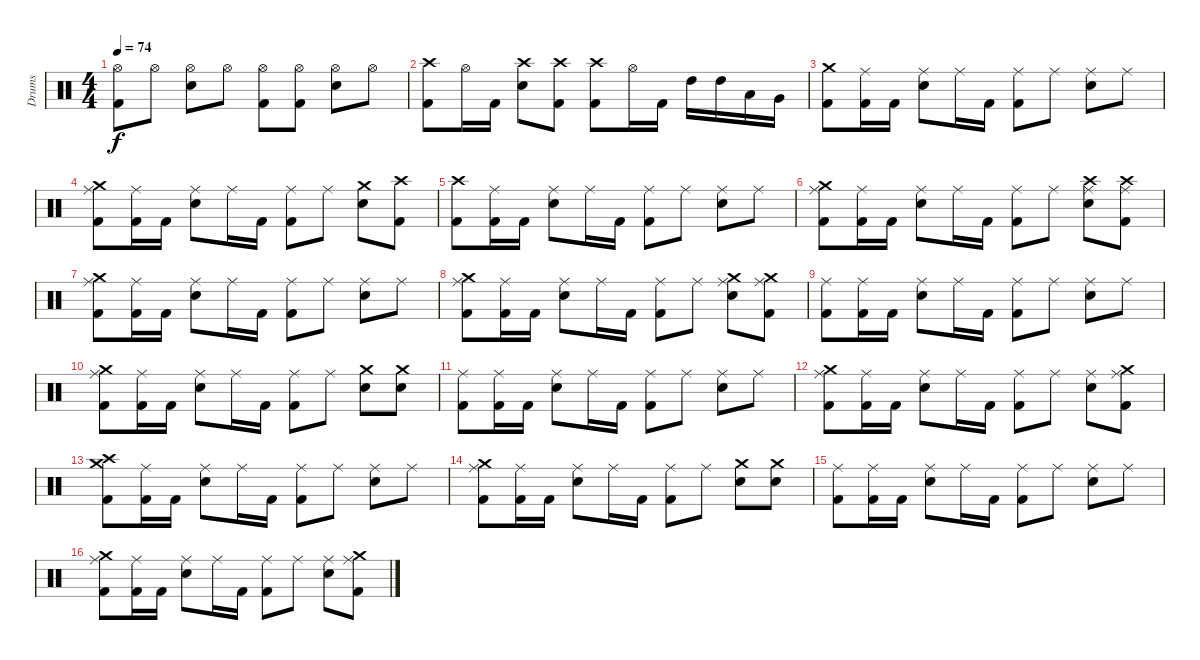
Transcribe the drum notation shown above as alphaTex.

\track ("Drums" "Drums") {instrument percussion}
\staff {score}
\articulation defaults
\ts (4 4)
\tempo 74
\clef neutral
\ks c
("Hi-Hat (open)" "Kick (hit) 2").8{dy f} "Hi-Hat (open)".8 ("Hi-Hat (open)" "Snare (hit) 2").8 "Hi-Hat (open)".8 ("Hi-Hat (open)" "Kick (hit) 2").8 ("Hi-Hat (open)" "Kick (hit) 2").8 ("Hi-Hat (open)" "Snare (hit) 2").8 "Hi-Hat (open)".8 |
("Crash high (hit)" "Kick (hit) 2").8 "Hi-Hat (open)".16 "Kick (hit) 2".16 ("Crash high (hit)" "Snare (hit) 2").8 ("Crash high (hit)" "Kick (hit) 2").8 ("Crash high (hit)" "Kick (hit) 2").8 "Hi-Hat (open)".16 "Kick (hit) 2".16 "High Tom (hit)".16 "High Tom (hit)".16 "Low Tom (hit)".16 "Very Low Tom (hit)".16 |
("Crash medium (hit)" "Kick (hit) 2").8 ("Ride (middle)" "Kick (hit) 2").16 "Kick (hit) 2".16 ("Ride (middle)" "Snare (hit) 2").8 "Ride (middle)".16 "Kick (hit) 2".16 ("Ride (middle)" "Kick (hit) 2").8 "Ride (middle)".8 ("Ride (middle)" "Snare (hit) 2").8 "Ride (middle)".8 |
("Ride (middle)" "Crash medium (hit)" "Kick (hit) 2").8 ("Ride (middle)" "Kick (hit) 2").16 "Kick (hit) 2".16 ("Ride (middle)" "Snare (hit) 2").8 "Ride (middle)".16 "Kick (hit) 2".16 ("Ride (middle)" "Kick (hit) 2").8 "Ride (middle)".8 ("Crash medium (hit)" "Snare (hit) 2").8 ("Crash high (hit)" "Kick (hit) 2").8 |
("Crash high (hit)" "Kick (hit) 2").8 ("Ride (middle)" "Kick (hit) 2").16 "Kick (hit) 2".16 ("Ride (middle)" "Snare (hit) 2").8 "Ride (middle)".16 "Kick (hit) 2".16 ("Ride (middle)" "Kick (hit) 2").8 "Ride (middle)".8 ("Ride (middle)" "Snare (hit) 2").8 "Ride (middle)".8 |
("Ride (middle)" "Crash medium (hit)" "Kick (hit) 2").8 ("Ride (middle)" "Kick (hit) 2").16 "Kick (hit) 2".16 ("Ride (middle)" "Snare (hit) 2").8 "Ride (middle)".16 "Kick (hit) 2".16 ("Ride (middle)" "Kick (hit) 2").8 "Ride (middle)".8 ("Ride (middle)" "Crash high (hit)" "Snare (hit) 2").8 ("Ride (middle)" "Crash high (hit)" "Kick (hit) 2").8 |
("Ride (middle)" "Crash medium (hit)" "Kick (hit) 2").8 ("Ride (middle)" "Kick (hit) 2").16 "Kick (hit) 2".16 ("Ride (middle)" "Snare (hit) 2").8 "Ride (middle)".16 "Kick (hit) 2".16 ("Ride (middle)" "Kick (hit) 2").8 "Ride (middle)".8 ("Ride (middle)" "Snare (hit) 2").8 "Ride (middle)".8 |
("Ride (middle)" "Crash medium (hit)" "Kick (hit) 2").8 ("Ride (middle)" "Kick (hit) 2").16 "Kick (hit) 2".16 ("Ride (middle)" "Snare (hit) 2").8 "Ride (middle)".16 "Kick (hit) 2".16 ("Ride (middle)" "Kick (hit) 2").8 "Ride (middle)".8 ("Ride (middle)" "Crash medium (hit)" "Snare (hit) 2").8 ("Ride (middle)" "Crash medium (hit)" "Kick (hit) 2").8 |
("Ride (middle)" "Kick (hit) 2").8 ("Ride (middle)" "Kick (hit) 2").16 "Kick (hit) 2".16 ("Ride (middle)" "Snare (hit) 2").8 "Ride (middle)".16 "Kick (hit) 2".16 ("Ride (middle)" "Kick (hit) 2").8 "Ride (middle)".8 ("Ride (middle)" "Snare (hit) 2").8 "Ride (middle)".8 |
("Ride (middle)" "Crash medium (hit)" "Kick (hit) 2").8 ("Ride (middle)" "Kick (hit) 2").16 "Kick (hit) 2".16 ("Ride (middle)" "Snare (hit) 2").8 "Ride (middle)".16 "Kick (hit) 2".16 ("Ride (middle)" "Kick (hit) 2").8 "Ride (middle)".8 ("Crash medium (hit)" "Snare (hit) 2").8 ("Crash medium (hit)" "Snare (hit) 2").8 |
("Ride (middle)" "Kick (hit) 2").8 ("Ride (middle)" "Kick (hit) 2").16 "Kick (hit) 2".16 ("Ride (middle)" "Snare (hit) 2").8 "Ride (middle)".16 "Kick (hit) 2".16 ("Ride (middle)" "Kick (hit) 2").8 "Ride (middle)".8 ("Ride (middle)" "Snare (hit) 2").8 "Ride (middle)".8 |
("Ride (middle)" "Crash medium (hit)" "Kick (hit) 2").8 ("Ride (middle)" "Kick (hit) 2").16 "Kick (hit) 2".16 ("Ride (middle)" "Snare (hit) 2").8 "Ride (middle)".16 "Kick (hit) 2".16 ("Ride (middle)" "Kick (hit) 2").8 "Ride (middle)".8 ("Ride (middle)" "Snare (hit) 2").8 ("Ride (middle)" "Crash medium (hit)" "Kick (hit) 2").8 |
("Crash high (hit)" "Crash medium (hit)" "Kick (hit) 2").8 ("Ride (middle)" "Kick (hit) 2").16 "Kick (hit) 2".16 ("Ride (middle)" "Snare (hit) 2").8 "Ride (middle)".16 "Kick (hit) 2".16 ("Ride (middle)" "Kick (hit) 2").8 "Ride (middle)".8 ("Ride (middle)" "Snare (hit) 2").8 "Ride (middle)".8 |
("Ride (middle)" "Crash medium (hit)" "Kick (hit) 2").8 ("Ride (middle)" "Kick (hit) 2").16 "Kick (hit) 2".16 ("Ride (middle)" "Snare (hit) 2").8 "Ride (middle)".16 "Kick (hit) 2".16 ("Ride (middle)" "Kick (hit) 2").8 "Ride (middle)".8 ("Crash medium (hit)" "Snare (hit) 2").8 ("Crash medium (hit)" "Snare (hit) 2").8 |
("Ride (middle)" "Kick (hit) 2").8 ("Ride (middle)" "Kick (hit) 2").16 "Kick (hit) 2".16 ("Ride (middle)" "Snare (hit) 2").8 "Ride (middle)".16 "Kick (hit) 2".16 ("Ride (middle)" "Kick (hit) 2").8 "Ride (middle)".8 ("Ride (middle)" "Snare (hit) 2").8 "Ride (middle)".8 |
("Ride (middle)" "Crash medium (hit)" "Kick (hit) 2").8 ("Ride (middle)" "Kick (hit) 2").16 "Kick (hit) 2".16 ("Ride (middle)" "Snare (hit) 2").8 "Ride (middle)".16 "Kick (hit) 2".16 ("Ride (middle)" "Kick (hit) 2").8 "Ride (middle)".8 ("Ride (middle)" "Snare (hit) 2").8 ("Ride (middle)" "Crash medium (hit)" "Kick (hit) 2").8
